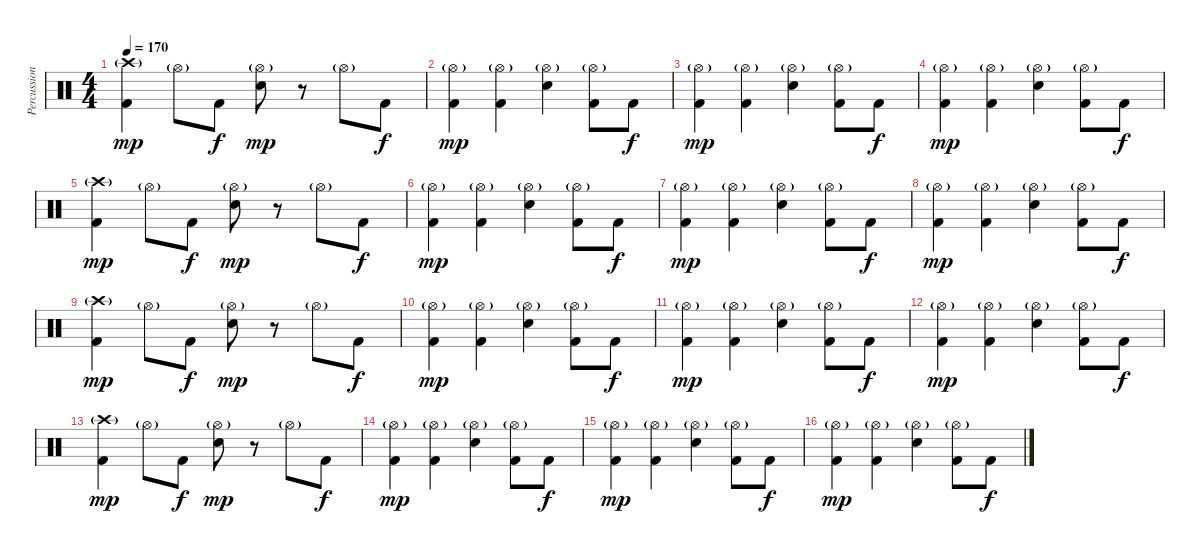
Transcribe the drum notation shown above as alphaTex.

\track ("Percussion" "Percussion") {instrument percussion}
\staff {score}
\articulation defaults
\ts (4 4)
\tempo 170
\clef neutral
\ks c
("Crash high (hit)"{g} "Kick (hit) 2").4{dy mp} "Hi-Hat (open)"{g}.8 "Kick (hit) 2".8{dy f} ("Hi-Hat (open)"{g} "Electric Snare (hit)").8{dy mp} r.8 "Hi-Hat (open)"{g}.8 "Kick (hit) 2".8{dy f} |
("Hi-Hat (open)"{g} "Kick (hit) 2").4{dy mp} ("Hi-Hat (open)"{g} "Kick (hit) 2").4 ("Hi-Hat (open)"{g} "Electric Snare (hit)").4 ("Hi-Hat (open)"{g} "Kick (hit) 2").8 "Kick (hit) 2".8{dy f} |
("Hi-Hat (open)"{g} "Kick (hit) 2").4{dy mp} ("Hi-Hat (open)"{g} "Kick (hit) 2").4 ("Hi-Hat (open)"{g} "Electric Snare (hit)").4 ("Hi-Hat (open)"{g} "Kick (hit) 2").8 "Kick (hit) 2".8{dy f} |
("Hi-Hat (open)"{g} "Kick (hit) 2").4{dy mp} ("Hi-Hat (open)"{g} "Kick (hit) 2").4 ("Hi-Hat (open)"{g} "Electric Snare (hit)").4 ("Hi-Hat (open)"{g} "Kick (hit) 2").8 "Kick (hit) 2".8{dy f} |
("Crash high (hit)"{g} "Kick (hit) 2").4{dy mp} "Hi-Hat (open)"{g}.8 "Kick (hit) 2".8{dy f} ("Hi-Hat (open)"{g} "Electric Snare (hit)").8{dy mp} r.8 "Hi-Hat (open)"{g}.8 "Kick (hit) 2".8{dy f} |
("Hi-Hat (open)"{g} "Kick (hit) 2").4{dy mp} ("Hi-Hat (open)"{g} "Kick (hit) 2").4 ("Hi-Hat (open)"{g} "Electric Snare (hit)").4 ("Hi-Hat (open)"{g} "Kick (hit) 2").8 "Kick (hit) 2".8{dy f} |
("Hi-Hat (open)"{g} "Kick (hit) 2").4{dy mp} ("Hi-Hat (open)"{g} "Kick (hit) 2").4 ("Hi-Hat (open)"{g} "Electric Snare (hit)").4 ("Hi-Hat (open)"{g} "Kick (hit) 2").8 "Kick (hit) 2".8{dy f} |
("Hi-Hat (open)"{g} "Kick (hit) 2").4{dy mp} ("Hi-Hat (open)"{g} "Kick (hit) 2").4 ("Hi-Hat (open)"{g} "Electric Snare (hit)").4 ("Hi-Hat (open)"{g} "Kick (hit) 2").8 "Kick (hit) 2".8{dy f} |
("Crash high (hit)"{g} "Kick (hit) 2").4{dy mp} "Hi-Hat (open)"{g}.8 "Kick (hit) 2".8{dy f} ("Hi-Hat (open)"{g} "Electric Snare (hit)").8{dy mp} r.8 "Hi-Hat (open)"{g}.8 "Kick (hit) 2".8{dy f} |
("Hi-Hat (open)"{g} "Kick (hit) 2").4{dy mp} ("Hi-Hat (open)"{g} "Kick (hit) 2").4 ("Hi-Hat (open)"{g} "Electric Snare (hit)").4 ("Hi-Hat (open)"{g} "Kick (hit) 2").8 "Kick (hit) 2".8{dy f} |
("Hi-Hat (open)"{g} "Kick (hit) 2").4{dy mp} ("Hi-Hat (open)"{g} "Kick (hit) 2").4 ("Hi-Hat (open)"{g} "Electric Snare (hit)").4 ("Hi-Hat (open)"{g} "Kick (hit) 2").8 "Kick (hit) 2".8{dy f} |
("Hi-Hat (open)"{g} "Kick (hit) 2").4{dy mp} ("Hi-Hat (open)"{g} "Kick (hit) 2").4 ("Hi-Hat (open)"{g} "Electric Snare (hit)").4 ("Hi-Hat (open)"{g} "Kick (hit) 2").8 "Kick (hit) 2".8{dy f} |
("Crash high (hit)"{g} "Kick (hit) 2").4{dy mp} "Hi-Hat (open)"{g}.8 "Kick (hit) 2".8{dy f} ("Hi-Hat (open)"{g} "Electric Snare (hit)").8{dy mp} r.8 "Hi-Hat (open)"{g}.8 "Kick (hit) 2".8{dy f} |
("Hi-Hat (open)"{g} "Kick (hit) 2").4{dy mp} ("Hi-Hat (open)"{g} "Kick (hit) 2").4 ("Hi-Hat (open)"{g} "Electric Snare (hit)").4 ("Hi-Hat (open)"{g} "Kick (hit) 2").8 "Kick (hit) 2".8{dy f} |
("Hi-Hat (open)"{g} "Kick (hit) 2").4{dy mp} ("Hi-Hat (open)"{g} "Kick (hit) 2").4 ("Hi-Hat (open)"{g} "Electric Snare (hit)").4 ("Hi-Hat (open)"{g} "Kick (hit) 2").8 "Kick (hit) 2".8{dy f} |
("Hi-Hat (open)"{g} "Kick (hit) 2").4{dy mp} ("Hi-Hat (open)"{g} "Kick (hit) 2").4 ("Hi-Hat (open)"{g} "Electric Snare (hit)").4 ("Hi-Hat (open)"{g} "Kick (hit) 2").8 "Kick (hit) 2".8{dy f}
